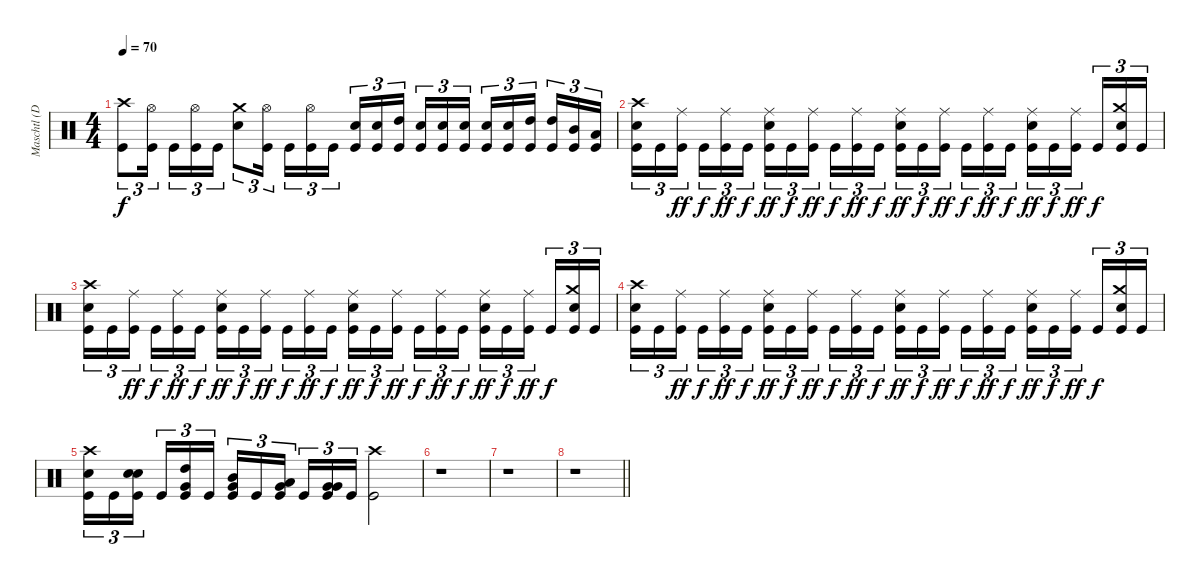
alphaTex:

\track ("Maschtl (Drums)" "Maschtl (D") {instrument percussion}
\staff {score}
\articulation defaults
\ts (4 4)
\tempo 70
\clef neutral
\ks c
("Crash high (hit)" "Kick (hit)").8{tu (3 2) dy f} ("Hi-Hat (open)" "Kick (hit)").16{tu (3 2)} "Kick (hit)".16{tu (3 2)} ("Hi-Hat (open)" "Kick (hit)").16{tu (3 2)} "Kick (hit)".16{tu (3 2)} ("Crash medium (hit)" "Electric Snare (hit)").8{tu (3 2)} ("Hi-Hat (open)" "Kick (hit)").16{tu (3 2)} "Kick (hit)".16{tu (3 2)} ("Hi-Hat (open)" "Kick (hit)").16{tu (3 2)} "Kick (hit)".16{tu (3 2)} ("Electric Snare (hit)" "Kick (hit)").16{tu (3 2)} ("Electric Snare (hit)" "Kick (hit)").16{tu (3 2)} ("High Tom (hit)" "Kick (hit)").16{tu (3 2)} ("Electric Snare (hit)" "Kick (hit)").16{tu (3 2)} ("Electric Snare (hit)" "Kick (hit)").16{tu (3 2)} ("Electric Snare (hit)" "Kick (hit)").16{tu (3 2)} ("Electric Snare (hit)" "Kick (hit)").16{tu (3 2)} ("Electric Snare (hit)" "Kick (hit)").16{tu (3 2)} ("High Tom (hit)" "Kick (hit)").16{tu (3 2)} ("High Tom (hit)" "Kick (hit)").16{tu (3 2)} ("Mid Tom (hit)" "Kick (hit)").16{tu (3 2)} ("Low Tom (hit)" "Kick (hit)").16{tu (3 2)} |
("Crash high (hit)" "Electric Snare (hit)" "Kick (hit)").16{tu (3 2)} "Kick (hit)".16{tu (3 2)} ("Ride (middle)" "Kick (hit)").16{tu (3 2) dy ff} "Kick (hit)".16{tu (3 2) dy f} ("Ride (middle)" "Kick (hit)").16{tu (3 2) dy ff} "Kick (hit)".16{tu (3 2) dy f} ("Ride (middle)" "Electric Snare (hit)" "Kick (hit)").16{tu (3 2) dy ff} "Kick (hit)".16{tu (3 2) dy f} ("Ride (middle)" "Kick (hit)").16{tu (3 2) dy ff} "Kick (hit)".16{tu (3 2) dy f} ("Ride (middle)" "Kick (hit)").16{tu (3 2) dy ff} "Kick (hit)".16{tu (3 2) dy f} ("Ride (middle)" "Electric Snare (hit)" "Kick (hit)").16{tu (3 2) dy ff} "Kick (hit)".16{tu (3 2) dy f} ("Ride (middle)" "Kick (hit)").16{tu (3 2) dy ff} "Kick (hit)".16{tu (3 2) dy f} ("Ride (middle)" "Kick (hit)").16{tu (3 2) dy ff} "Kick (hit)".16{tu (3 2) dy f} ("Ride (middle)" "Electric Snare (hit)" "Kick (hit)").16{tu (3 2) dy ff} "Kick (hit)".16{tu (3 2) dy f} ("Ride (middle)" "Kick (hit)").16{tu (3 2) dy ff} "Kick (hit)".16{tu (3 2) dy f} ("Crash medium (hit)" "Electric Snare (hit)" "Kick (hit)").16{tu (3 2)} "Kick (hit)".16{tu (3 2)} |
("Crash high (hit)" "Electric Snare (hit)" "Kick (hit)").16{tu (3 2)} "Kick (hit)".16{tu (3 2)} ("Ride (middle)" "Kick (hit)").16{tu (3 2) dy ff} "Kick (hit)".16{tu (3 2) dy f} ("Ride (middle)" "Kick (hit)").16{tu (3 2) dy ff} "Kick (hit)".16{tu (3 2) dy f} ("Ride (middle)" "Electric Snare (hit)" "Kick (hit)").16{tu (3 2) dy ff} "Kick (hit)".16{tu (3 2) dy f} ("Ride (middle)" "Kick (hit)").16{tu (3 2) dy ff} "Kick (hit)".16{tu (3 2) dy f} ("Ride (middle)" "Kick (hit)").16{tu (3 2) dy ff} "Kick (hit)".16{tu (3 2) dy f} ("Ride (middle)" "Electric Snare (hit)" "Kick (hit)").16{tu (3 2) dy ff} "Kick (hit)".16{tu (3 2) dy f} ("Ride (middle)" "Kick (hit)").16{tu (3 2) dy ff} "Kick (hit)".16{tu (3 2) dy f} ("Ride (middle)" "Kick (hit)").16{tu (3 2) dy ff} "Kick (hit)".16{tu (3 2) dy f} ("Ride (middle)" "Electric Snare (hit)" "Kick (hit)").16{tu (3 2) dy ff} "Kick (hit)".16{tu (3 2) dy f} ("Ride (middle)" "Kick (hit)").16{tu (3 2) dy ff} "Kick (hit)".16{tu (3 2) dy f} ("Crash medium (hit)" "Electric Snare (hit)" "Kick (hit)").16{tu (3 2)} "Kick (hit)".16{tu (3 2)} |
("Crash high (hit)" "Electric Snare (hit)" "Kick (hit)").16{tu (3 2)} "Kick (hit)".16{tu (3 2)} ("Ride (middle)" "Kick (hit)").16{tu (3 2) dy ff} "Kick (hit)".16{tu (3 2) dy f} ("Ride (middle)" "Kick (hit)").16{tu (3 2) dy ff} "Kick (hit)".16{tu (3 2) dy f} ("Ride (middle)" "Electric Snare (hit)" "Kick (hit)").16{tu (3 2) dy ff} "Kick (hit)".16{tu (3 2) dy f} ("Ride (middle)" "Kick (hit)").16{tu (3 2) dy ff} "Kick (hit)".16{tu (3 2) dy f} ("Ride (middle)" "Kick (hit)").16{tu (3 2) dy ff} "Kick (hit)".16{tu (3 2) dy f} ("Ride (middle)" "Electric Snare (hit)" "Kick (hit)").16{tu (3 2) dy ff} "Kick (hit)".16{tu (3 2) dy f} ("Ride (middle)" "Kick (hit)").16{tu (3 2) dy ff} "Kick (hit)".16{tu (3 2) dy f} ("Ride (middle)" "Kick (hit)").16{tu (3 2) dy ff} "Kick (hit)".16{tu (3 2) dy f} ("Ride (middle)" "Electric Snare (hit)" "Kick (hit)").16{tu (3 2) dy ff} "Kick (hit)".16{tu (3 2) dy f} ("Ride (middle)" "Kick (hit)").16{tu (3 2) dy ff} "Kick (hit)".16{tu (3 2) dy f} ("Crash medium (hit)" "Electric Snare (hit)" "Kick (hit)").16{tu (3 2)} "Kick (hit)".16{tu (3 2)} |
("Crash high (hit)" "Electric Snare (hit)" "Kick (hit)").16{tu (3 2)} "Kick (hit)".16{tu (3 2)} ("Electric Snare (hit)" "Electric Snare (hit)" "Kick (hit)").16{tu (3 2) bd 120} "Kick (hit)".16{tu (3 2)} ("High Tom (hit)" "Very Low Tom (hit)" "Kick (hit)").16{tu (3 2) bd 120} "Kick (hit)".16{tu (3 2)} ("Mid Tom (hit)" "Very Low Tom (hit)" "Kick (hit)").16{tu (3 2) bd 120} "Kick (hit)".16{tu (3 2)} ("Low Tom (hit)" "Very Low Tom (hit)" "Kick (hit)").16{tu (3 2) bd 120} "Kick (hit)".16{tu (3 2)} ("Very Low Tom (hit)" "Very Low Tom (hit)" "Kick (hit)").16{tu (3 2) bd 120} "Kick (hit)".16{tu (3 2)} ("Crash high (hit)" "Kick (hit)").2 |
r.1{volume 0} |
r.1 |
\barLineRight lightlight
r.1{volume 16}
